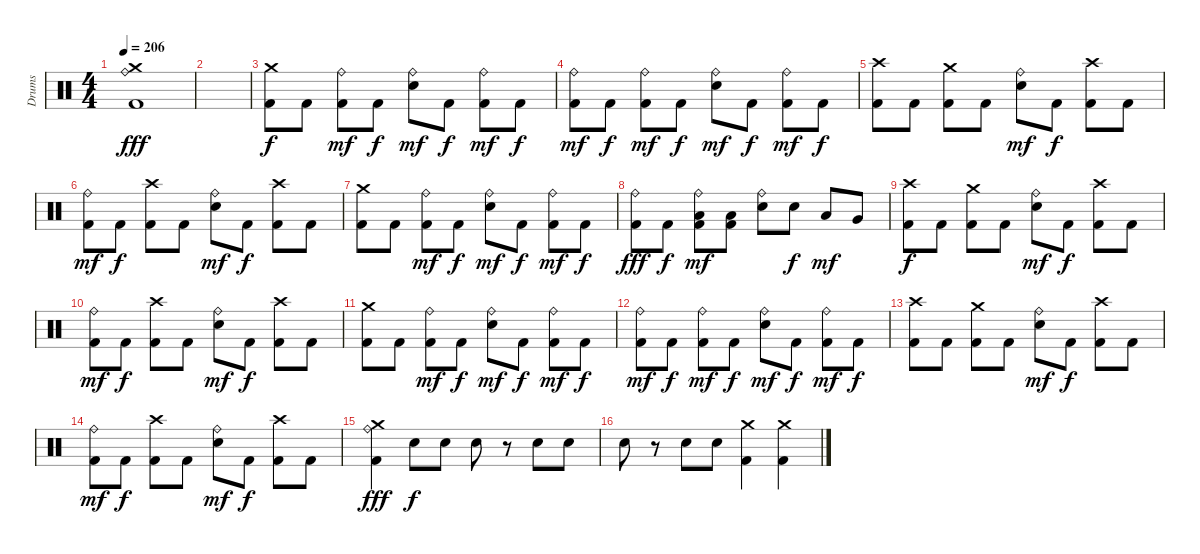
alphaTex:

\track ("Drums" "Drums") {instrument percussion}
\staff {score}
\articulation defaults
\ts (4 4)
\tempo 206
\clef neutral
\ks c
("Crash medium (hit)" "Ride (bell)" "Kick (hit) 2").1{dy fff} |
|
("Crash medium (hit)" "Kick (hit) 2").8{dy f} "Kick (hit) 2".8 ("Ride (bell)" "Kick (hit) 2").8{dy mf} "Kick (hit) 2".8{dy f} ("Ride (bell)" "Snare (hit) 2").8{dy mf} "Kick (hit) 2".8{dy f} ("Ride (bell)" "Kick (hit) 2").8{dy mf} "Kick (hit) 2".8{dy f} |
("Ride (bell)" "Kick (hit) 2").8{dy mf} "Kick (hit) 2".8{dy f} ("Ride (bell)" "Kick (hit) 2").8{dy mf} "Kick (hit) 2".8{dy f} ("Ride (bell)" "Snare (hit) 2").8{dy mf} "Kick (hit) 2".8{dy f} ("Ride (bell)" "Kick (hit) 2").8{dy mf} "Kick (hit) 2".8{dy f} |
("Crash high (hit)" "Kick (hit) 2").8 "Kick (hit) 2".8 ("Crash medium (hit)" "Kick (hit) 2").8 "Kick (hit) 2".8 ("Ride (bell)" "Snare (hit) 2").8{dy mf} "Kick (hit) 2".8{dy f} ("Crash high (hit)" "Kick (hit) 2").8 "Kick (hit) 2".8 |
("Ride (bell)" "Kick (hit) 2").8{dy mf} "Kick (hit) 2".8{dy f} ("Crash high (hit)" "Kick (hit) 2").8 "Kick (hit) 2".8 ("Ride (bell)" "Snare (hit) 2").8{dy mf} "Kick (hit) 2".8{dy f} ("Crash high (hit)" "Kick (hit) 2").8 "Kick (hit) 2".8 |
("Crash medium (hit)" "Kick (hit) 2").8 "Kick (hit) 2".8 ("Ride (bell)" "Kick (hit) 2").8{dy mf} "Kick (hit) 2".8{dy f} ("Ride (bell)" "Snare (hit) 2").8{dy mf} "Kick (hit) 2".8{dy f} ("Ride (bell)" "Kick (hit) 2").8{dy mf} "Kick (hit) 2".8{dy f} |
("Ride (bell)" "Kick (hit) 2").8{dy fff} "Kick (hit) 2".8{dy f} ("Ride (bell)" "Low Floor Tom (hit)" "Kick (hit) 2").8{dy mf} ("Low Floor Tom (hit)" "Kick (hit) 2").8 ("Ride (bell)" "Snare (hit) 2").8 "Snare (hit) 2".8{dy f} "Low Tom (hit)".8{dy mf} "Very Low Tom (hit)".8 |
("Crash high (hit)" "Kick (hit) 2").8{dy f} "Kick (hit) 2".8 ("Crash medium (hit)" "Kick (hit) 2").8 "Kick (hit) 2".8 ("Ride (bell)" "Snare (hit) 2").8{dy mf} "Kick (hit) 2".8{dy f} ("Crash high (hit)" "Kick (hit) 2").8 "Kick (hit) 2".8 |
("Ride (bell)" "Kick (hit) 2").8{dy mf} "Kick (hit) 2".8{dy f} ("Crash high (hit)" "Kick (hit) 2").8 "Kick (hit) 2".8 ("Ride (bell)" "Snare (hit) 2").8{dy mf} "Kick (hit) 2".8{dy f} ("Crash high (hit)" "Kick (hit) 2").8 "Kick (hit) 2".8 |
("Crash medium (hit)" "Kick (hit) 2").8 "Kick (hit) 2".8 ("Ride (bell)" "Kick (hit) 2").8{dy mf} "Kick (hit) 2".8{dy f} ("Ride (bell)" "Snare (hit) 2").8{dy mf} "Kick (hit) 2".8{dy f} ("Ride (bell)" "Kick (hit) 2").8{dy mf} "Kick (hit) 2".8{dy f} |
("Ride (bell)" "Kick (hit) 2").8{dy mf} "Kick (hit) 2".8{dy f} ("Ride (bell)" "Kick (hit) 2").8{dy mf} "Kick (hit) 2".8{dy f} ("Ride (bell)" "Snare (hit) 2").8{dy mf} "Kick (hit) 2".8{dy f} ("Ride (bell)" "Kick (hit) 2").8{dy mf} "Kick (hit) 2".8{dy f} |
("Crash high (hit)" "Kick (hit) 2").8 "Kick (hit) 2".8 ("Crash medium (hit)" "Kick (hit) 2").8 "Kick (hit) 2".8 ("Ride (bell)" "Snare (hit) 2").8{dy mf} "Kick (hit) 2".8{dy f} ("Crash high (hit)" "Kick (hit) 2").8 "Kick (hit) 2".8 |
("Ride (bell)" "Kick (hit) 2").8{dy mf} "Kick (hit) 2".8{dy f} ("Crash high (hit)" "Kick (hit) 2").8 "Kick (hit) 2".8 ("Ride (bell)" "Snare (hit) 2").8{dy mf} "Kick (hit) 2".8{dy f} ("Crash high (hit)" "Kick (hit) 2").8 "Kick (hit) 2".8 |
("Crash medium (hit)" "Ride (bell)" "Kick (hit) 2").4{dy fff} "Snare (hit) 2".8{dy f} "Snare (hit) 2".8 "Snare (hit) 2".8 r.8 "Snare (hit) 2".8 "Snare (hit) 2".8 |
"Snare (hit) 2".8 r.8 "Snare (hit) 2".8 "Snare (hit) 2".8 ("Crash medium (hit)" "Kick (hit) 2").4 ("Crash medium (hit)" "Kick (hit) 2").4
